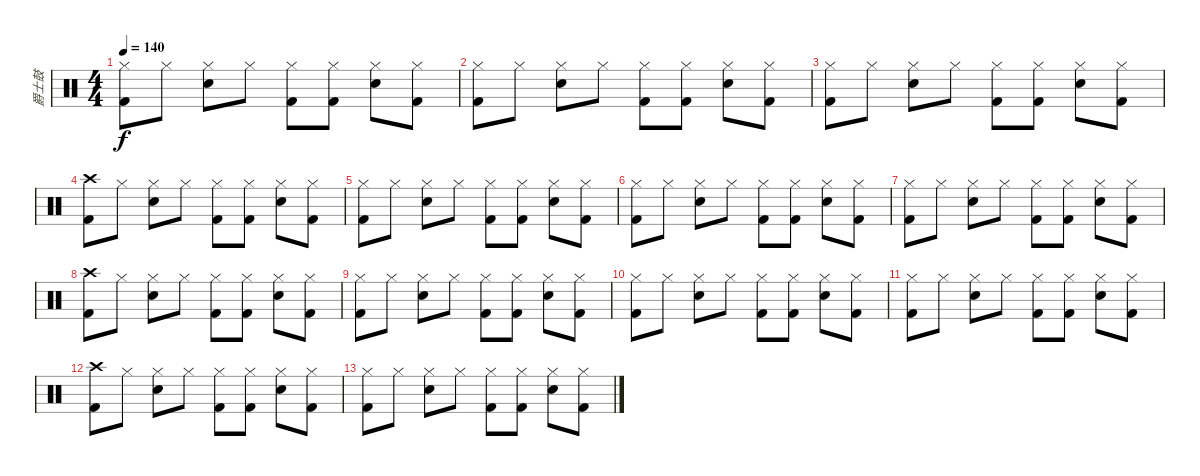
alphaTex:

\track ("爵士鼓" "爵士鼓") {instrument percussion}
\staff {score}
\articulation defaults
\ts (4 4)
\tempo 140
\clef neutral
\ks c
("Hi-Hat (closed)" "Kick (hit) 2").8{dy f} "Hi-Hat (closed)".8 ("Hi-Hat (closed)" "Electric Snare (hit)").8 "Hi-Hat (closed)".8 ("Hi-Hat (closed)" "Kick (hit) 2").8 ("Hi-Hat (closed)" "Kick (hit) 2").8 ("Hi-Hat (closed)" "Electric Snare (hit)").8 ("Hi-Hat (closed)" "Kick (hit) 2").8 |
("Hi-Hat (closed)" "Kick (hit) 2").8 "Hi-Hat (closed)".8 ("Hi-Hat (closed)" "Electric Snare (hit)").8 "Hi-Hat (closed)".8 ("Hi-Hat (closed)" "Kick (hit) 2").8 ("Hi-Hat (closed)" "Kick (hit) 2").8 ("Hi-Hat (closed)" "Electric Snare (hit)").8 ("Hi-Hat (closed)" "Kick (hit) 2").8 |
("Hi-Hat (closed)" "Kick (hit) 2").8 "Hi-Hat (closed)".8 ("Hi-Hat (closed)" "Electric Snare (hit)").8 "Hi-Hat (closed)".8 ("Hi-Hat (closed)" "Kick (hit) 2").8 ("Hi-Hat (closed)" "Kick (hit) 2").8 ("Hi-Hat (closed)" "Electric Snare (hit)").8 ("Hi-Hat (closed)" "Kick (hit) 2").8 |
("Crash high (hit)" "Kick (hit) 2").8 "Hi-Hat (closed)".8 ("Hi-Hat (closed)" "Electric Snare (hit)").8 "Hi-Hat (closed)".8 ("Hi-Hat (closed)" "Kick (hit) 2").8 ("Hi-Hat (closed)" "Kick (hit) 2").8 ("Hi-Hat (closed)" "Electric Snare (hit)").8 ("Hi-Hat (closed)" "Kick (hit) 2").8 |
("Hi-Hat (closed)" "Kick (hit) 2").8 "Hi-Hat (closed)".8 ("Hi-Hat (closed)" "Electric Snare (hit)").8 "Hi-Hat (closed)".8 ("Hi-Hat (closed)" "Kick (hit) 2").8 ("Hi-Hat (closed)" "Kick (hit) 2").8 ("Hi-Hat (closed)" "Electric Snare (hit)").8 ("Hi-Hat (closed)" "Kick (hit) 2").8 |
("Hi-Hat (closed)" "Kick (hit) 2").8 "Hi-Hat (closed)".8 ("Hi-Hat (closed)" "Electric Snare (hit)").8 "Hi-Hat (closed)".8 ("Hi-Hat (closed)" "Kick (hit) 2").8 ("Hi-Hat (closed)" "Kick (hit) 2").8 ("Hi-Hat (closed)" "Electric Snare (hit)").8 ("Hi-Hat (closed)" "Kick (hit) 2").8 |
("Hi-Hat (closed)" "Kick (hit) 2").8 "Hi-Hat (closed)".8 ("Hi-Hat (closed)" "Electric Snare (hit)").8 "Hi-Hat (closed)".8 ("Hi-Hat (closed)" "Kick (hit) 2").8 ("Hi-Hat (closed)" "Kick (hit) 2").8 ("Hi-Hat (closed)" "Electric Snare (hit)").8 ("Hi-Hat (closed)" "Kick (hit) 2").8 |
("Crash high (hit)" "Kick (hit) 2").8{volume 15} "Hi-Hat (closed)".8 ("Hi-Hat (closed)" "Electric Snare (hit)").8 "Hi-Hat (closed)".8 ("Hi-Hat (closed)" "Kick (hit) 2").8{volume 14} ("Hi-Hat (closed)" "Kick (hit) 2").8 ("Hi-Hat (closed)" "Electric Snare (hit)").8{volume 13} ("Hi-Hat (closed)" "Kick (hit) 2").8 |
("Hi-Hat (closed)" "Kick (hit) 2").8{volume 11} "Hi-Hat (closed)".8 ("Hi-Hat (closed)" "Electric Snare (hit)").8{volume 10} "Hi-Hat (closed)".8 ("Hi-Hat (closed)" "Kick (hit) 2").8{volume 9} ("Hi-Hat (closed)" "Kick (hit) 2").8 ("Hi-Hat (closed)" "Electric Snare (hit)").8{volume 8} ("Hi-Hat (closed)" "Kick (hit) 2").8 |
("Hi-Hat (closed)" "Kick (hit) 2").8{volume 7} "Hi-Hat (closed)".8 ("Hi-Hat (closed)" "Electric Snare (hit)").8 "Hi-Hat (closed)".8 ("Hi-Hat (closed)" "Kick (hit) 2").8{volume 6} ("Hi-Hat (closed)" "Kick (hit) 2").8 ("Hi-Hat (closed)" "Electric Snare (hit)").8{volume 5} ("Hi-Hat (closed)" "Kick (hit) 2").8 |
("Hi-Hat (closed)" "Kick (hit) 2").8{volume 4} "Hi-Hat (closed)".8 ("Hi-Hat (closed)" "Electric Snare (hit)").8{volume 3} "Hi-Hat (closed)".8 ("Hi-Hat (closed)" "Kick (hit) 2").8{volume 2} ("Hi-Hat (closed)" "Kick (hit) 2").8 ("Hi-Hat (closed)" "Electric Snare (hit)").8{volume 1} ("Hi-Hat (closed)" "Kick (hit) 2").8 |
("Crash high (hit)" "Kick (hit) 2").8 "Hi-Hat (closed)".8 ("Hi-Hat (closed)" "Electric Snare (hit)").8 "Hi-Hat (closed)".8 ("Hi-Hat (closed)" "Kick (hit) 2").8 ("Hi-Hat (closed)" "Kick (hit) 2").8 ("Hi-Hat (closed)" "Electric Snare (hit)").8 ("Hi-Hat (closed)" "Kick (hit) 2").8 |
("Hi-Hat (closed)" "Kick (hit) 2").8 "Hi-Hat (closed)".8 ("Hi-Hat (closed)" "Electric Snare (hit)").8 "Hi-Hat (closed)".8 ("Hi-Hat (closed)" "Kick (hit) 2").8{volume 0} ("Hi-Hat (closed)" "Kick (hit) 2").8 ("Hi-Hat (closed)" "Electric Snare (hit)").8 ("Hi-Hat (closed)" "Kick (hit) 2").8
